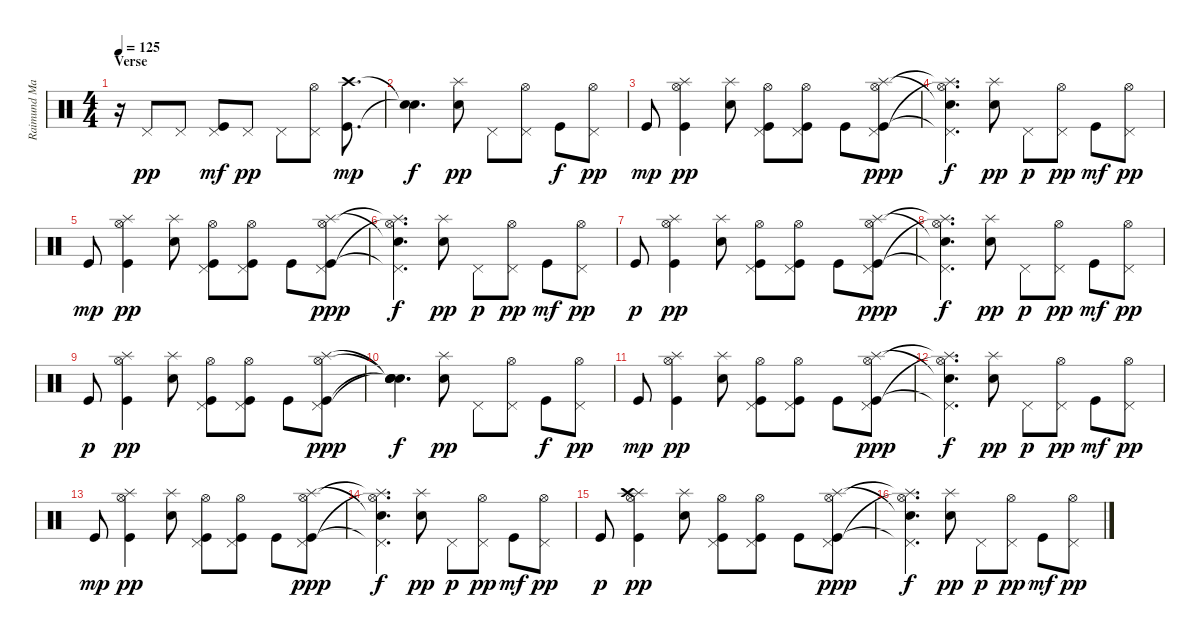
\track ("Raimund Marasigan (Drums)" "Raimund Ma") {instrument percussion}
\staff {score}
\articulation defaults
\ts (4 4)
\section ("" "Verse")
\tempo 125
\clef neutral
\ks c
r.16{dy pp} "Pedal Hi-Hat (hit)".8 "Pedal Hi-Hat (hit)".8 ("Pedal Hi-Hat (hit)" "Kick (hit)").8{dy mf} "Pedal Hi-Hat (hit)".8{dy pp} "Pedal Hi-Hat (hit)".8 ("Pedal Hi-Hat (hit)" "Hi-Hat (open)").8 ("Crash high (hit)" "Kick (hit)").8{d dy mp} |
("Snare (hit)"{t} "Snare (hit)"{t}).4{d dy f} ("Electric Snare (hit)" "Splash (hit)").8{dy pp} "Pedal Hi-Hat (hit)".8 ("Pedal Hi-Hat (hit)" "Hi-Hat (open)").8 "Kick (hit)".8{dy f} ("Pedal Hi-Hat (hit)" "Hi-Hat (open)").8{dy pp} |
"Kick (hit)".8{dy mp} ("Kick (hit)" "Splash (hit)" "Hi-Hat (open)").4{dy pp} ("Electric Snare (hit)" "Splash (hit)").8 ("Kick (hit)" "Pedal Hi-Hat (hit)" "Hi-Hat (open)").8 ("Kick (hit)" "Pedal Hi-Hat (hit)" "Hi-Hat (open)").8 "Kick (hit)".8 ("Kick (hit)" "Pedal Hi-Hat (hit)" "Hi-Hat (open)" "Splash (hit)").8{dy ppp} |
("Pedal Hi-Hat (hit)"{t} "Hi-Hat (open)"{t} "Splash (hit)"{t} "Snare (hit)"{t}).4{d dy f} ("Electric Snare (hit)" "Splash (hit)").8{dy pp} "Pedal Hi-Hat (hit)".8{dy p} ("Pedal Hi-Hat (hit)" "Hi-Hat (open)").8{dy pp} "Kick (hit)".8{dy mf} ("Pedal Hi-Hat (hit)" "Hi-Hat (open)").8{dy pp} |
"Kick (hit)".8{dy mp} ("Kick (hit)" "Splash (hit)" "Hi-Hat (open)").4{dy pp} ("Electric Snare (hit)" "Splash (hit)").8 ("Kick (hit)" "Pedal Hi-Hat (hit)" "Hi-Hat (open)").8 ("Kick (hit)" "Pedal Hi-Hat (hit)" "Hi-Hat (open)").8 "Kick (hit)".8 ("Kick (hit)" "Pedal Hi-Hat (hit)" "Hi-Hat (open)" "Splash (hit)").8{dy ppp} |
("Pedal Hi-Hat (hit)"{t} "Hi-Hat (open)"{t} "Splash (hit)"{t} "Snare (hit)"{t}).4{d dy f} ("Electric Snare (hit)" "Splash (hit)").8{dy pp} "Pedal Hi-Hat (hit)".8{dy p} ("Pedal Hi-Hat (hit)" "Hi-Hat (open)").8{dy pp} "Kick (hit)".8{dy mf} ("Pedal Hi-Hat (hit)" "Hi-Hat (open)").8{dy pp} |
"Kick (hit)".8{dy p} ("Kick (hit)" "Splash (hit)" "Hi-Hat (open)").4{dy pp} ("Electric Snare (hit)" "Splash (hit)").8 ("Kick (hit)" "Pedal Hi-Hat (hit)" "Hi-Hat (open)").8 ("Kick (hit)" "Pedal Hi-Hat (hit)" "Hi-Hat (open)").8 "Kick (hit)".8 ("Kick (hit)" "Pedal Hi-Hat (hit)" "Hi-Hat (open)" "Splash (hit)").8{dy ppp} |
("Pedal Hi-Hat (hit)"{t} "Hi-Hat (open)"{t} "Splash (hit)"{t} "Snare (hit)"{t}).4{d dy f} ("Electric Snare (hit)" "Splash (hit)").8{dy pp} "Pedal Hi-Hat (hit)".8{dy p} ("Pedal Hi-Hat (hit)" "Hi-Hat (open)").8{dy pp} "Kick (hit)".8{dy mf} ("Pedal Hi-Hat (hit)" "Hi-Hat (open)").8{dy pp} |
"Kick (hit)".8{dy p} ("Kick (hit)" "Splash (hit)" "Hi-Hat (open)").4{dy pp} ("Electric Snare (hit)" "Splash (hit)").8 ("Kick (hit)" "Pedal Hi-Hat (hit)" "Hi-Hat (open)").8 ("Kick (hit)" "Pedal Hi-Hat (hit)" "Hi-Hat (open)").8 "Kick (hit)".8 ("Kick (hit)" "Pedal Hi-Hat (hit)" "Hi-Hat (open)" "Splash (hit)").8{dy ppp} |
("Snare (hit)"{t} "Snare (hit)"{t} "Snare (hit)"{t} "Snare (hit)"{t}).4{d dy f} ("Electric Snare (hit)" "Splash (hit)").8{dy pp} "Pedal Hi-Hat (hit)".8 ("Pedal Hi-Hat (hit)" "Hi-Hat (open)").8 "Kick (hit)".8{dy f} ("Pedal Hi-Hat (hit)" "Hi-Hat (open)").8{dy pp} |
"Kick (hit)".8{dy mp} ("Kick (hit)" "Splash (hit)" "Hi-Hat (open)").4{dy pp} ("Electric Snare (hit)" "Splash (hit)").8 ("Kick (hit)" "Pedal Hi-Hat (hit)" "Hi-Hat (open)").8 ("Kick (hit)" "Pedal Hi-Hat (hit)" "Hi-Hat (open)").8 "Kick (hit)".8 ("Kick (hit)" "Pedal Hi-Hat (hit)" "Hi-Hat (open)" "Splash (hit)").8{dy ppp} |
("Pedal Hi-Hat (hit)"{t} "Hi-Hat (open)"{t} "Splash (hit)"{t} "Snare (hit)"{t}).4{d dy f} ("Electric Snare (hit)" "Splash (hit)").8{dy pp} "Pedal Hi-Hat (hit)".8{dy p} ("Pedal Hi-Hat (hit)" "Hi-Hat (open)").8{dy pp} "Kick (hit)".8{dy mf} ("Pedal Hi-Hat (hit)" "Hi-Hat (open)").8{dy pp} |
"Kick (hit)".8{dy mp} ("Kick (hit)" "Splash (hit)" "Hi-Hat (open)").4{dy pp} ("Electric Snare (hit)" "Splash (hit)").8 ("Kick (hit)" "Pedal Hi-Hat (hit)" "Hi-Hat (open)").8 ("Kick (hit)" "Pedal Hi-Hat (hit)" "Hi-Hat (open)").8 "Kick (hit)".8 ("Kick (hit)" "Pedal Hi-Hat (hit)" "Hi-Hat (open)" "Splash (hit)").8{dy ppp} |
("Pedal Hi-Hat (hit)"{t} "Hi-Hat (open)"{t} "Splash (hit)"{t} "Snare (hit)"{t}).4{d dy f} ("Electric Snare (hit)" "Splash (hit)").8{dy pp} "Pedal Hi-Hat (hit)".8{dy p} ("Pedal Hi-Hat (hit)" "Hi-Hat (open)").8{dy pp} "Kick (hit)".8{dy mf} ("Pedal Hi-Hat (hit)" "Hi-Hat (open)").8{dy pp} |
"Kick (hit)".8{dy p} ("Kick (hit)" "Splash (hit)" "Hi-Hat (open)" "Crash high (hit)").4{dy pp} ("Electric Snare (hit)" "Splash (hit)").8 ("Kick (hit)" "Pedal Hi-Hat (hit)" "Hi-Hat (open)").8 ("Kick (hit)" "Pedal Hi-Hat (hit)" "Hi-Hat (open)").8 "Kick (hit)".8 ("Kick (hit)" "Pedal Hi-Hat (hit)" "Hi-Hat (open)" "Splash (hit)").8{dy ppp} |
("Pedal Hi-Hat (hit)"{t} "Hi-Hat (open)"{t} "Splash (hit)"{t} "Snare (hit)"{t}).4{d dy f} ("Electric Snare (hit)" "Splash (hit)").8{dy pp} "Pedal Hi-Hat (hit)".8{dy p} ("Pedal Hi-Hat (hit)" "Hi-Hat (open)").8{dy pp} "Kick (hit)".8{dy mf} ("Pedal Hi-Hat (hit)" "Hi-Hat (open)").8{dy pp}
